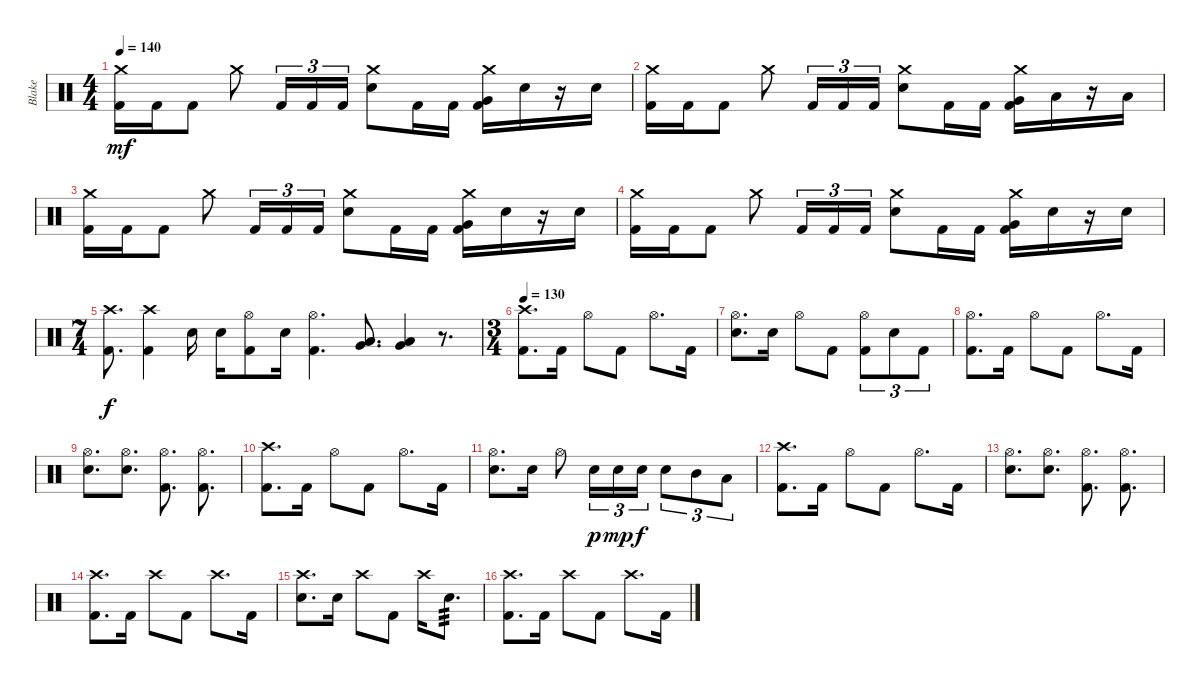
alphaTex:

\track ("Blake" "Blake") {instrument percussion}
\staff {score}
\articulation defaults
\ts (4 4)
\tempo 140
\clef neutral
\ks c
("Crash medium (hit)" "Kick (hit) 2").16{dy mf} "Kick (hit) 2".16 "Kick (hit) 2".8 "Crash medium (hit)".8 "Kick (hit) 2".16{tu (3 2)} "Kick (hit) 2".16{tu (3 2)} "Kick (hit) 2".16{tu (3 2)} ("Crash medium (hit)" "Snare (hit) 2").8 "Kick (hit) 2".16 "Kick (hit) 2".16 ("Crash medium (hit)" "Very Low Tom (hit)" "Kick (hit) 2").16 "Snare (hit) 2".16 r.16 "Snare (hit) 2".16 |
("Crash medium (hit)" "Kick (hit) 2").16 "Kick (hit) 2".16 "Kick (hit) 2".8 "Crash medium (hit)".8 "Kick (hit) 2".16{tu (3 2)} "Kick (hit) 2".16{tu (3 2)} "Kick (hit) 2".16{tu (3 2)} ("Crash medium (hit)" "Snare (hit) 2").8 "Kick (hit) 2".16 "Kick (hit) 2".16 ("Crash medium (hit)" "Very Low Tom (hit)" "Kick (hit) 2").16 "Low Tom (hit)".16 r.16 "Low Tom (hit)".16 |
("Crash medium (hit)" "Kick (hit) 2").16 "Kick (hit) 2".16 "Kick (hit) 2".8 "Crash medium (hit)".8 "Kick (hit) 2".16{tu (3 2)} "Kick (hit) 2".16{tu (3 2)} "Kick (hit) 2".16{tu (3 2)} ("Crash medium (hit)" "Snare (hit) 2").8 "Kick (hit) 2".16 "Kick (hit) 2".16 ("Crash medium (hit)" "Very Low Tom (hit)" "Kick (hit) 2").16 "Snare (hit) 2".16 r.16 "Snare (hit) 2".16 |
("Crash medium (hit)" "Kick (hit) 2").16 "Kick (hit) 2".16 "Kick (hit) 2".8 "Crash medium (hit)".8 "Kick (hit) 2".16{tu (3 2)} "Kick (hit) 2".16{tu (3 2)} "Kick (hit) 2".16{tu (3 2)} ("Crash medium (hit)" "Snare (hit) 2").8 "Kick (hit) 2".16 "Kick (hit) 2".16 ("Crash medium (hit)" "Very Low Tom (hit)" "Kick (hit) 2").16 "Snare (hit) 2".16 r.16 "Snare (hit) 2".16 |
\ts (7 4)
("Crash high (hit)" "Kick (hit) 2").8{d dy f} ("Crash high (hit)" "Kick (hit) 2").4 "Snare (hit) 2".16 "Snare (hit) 2".16 ("Hi-Hat (open)" "Kick (hit) 2").8 "Snare (hit) 2".16 ("Hi-Hat (open)" "Kick (hit) 2").4{d} ("Low Tom (hit)" "Very Low Tom (hit)").8{d} ("Low Tom (hit)" "Very Low Tom (hit)").4 r.8{d} |
\ts (3 4)
\tempo 130
("Crash high (hit)" "Kick (hit) 2").8{d} "Kick (hit) 2".16 "Hi-Hat (open)".8 "Kick (hit) 2".8 "Hi-Hat (open)".8{d} "Kick (hit) 2".16 |
("Hi-Hat (open)" "Snare (hit) 2").8{d} "Snare (hit) 2".16 "Hi-Hat (open)".8 "Kick (hit) 2".8 ("Hi-Hat (open)" "Kick (hit) 2").8{tu (3 2)} "Snare (hit) 2".8{tu (3 2)} "Kick (hit) 2".8{tu (3 2)} |
("Hi-Hat (open)" "Kick (hit) 2").8{d} "Kick (hit) 2".16 "Hi-Hat (open)".8 "Kick (hit) 2".8 "Hi-Hat (open)".8{d} "Kick (hit) 2".16 |
("Hi-Hat (open)" "Snare (hit) 2").8{d} ("Hi-Hat (open)" "Snare (hit) 2").8{d} ("Hi-Hat (open)" "Kick (hit) 2").8{d} ("Hi-Hat (open)" "Kick (hit) 2").8{d} |
("Crash high (hit)" "Kick (hit) 2").8{d} "Kick (hit) 2".16 "Hi-Hat (open)".8 "Kick (hit) 2".8 "Hi-Hat (open)".8{d} "Kick (hit) 2".16 |
("Hi-Hat (open)" "Snare (hit) 2").8{d} "Snare (hit) 2".16 "Hi-Hat (open)".8 "Snare (hit) 2".16{tu (3 2) dy p} "Snare (hit) 2".16{tu (3 2) dy mp} "Snare (hit) 2".16{tu (3 2) dy f} "Snare (hit) 2".8{tu (3 2)} "Mid Tom (hit)".8{tu (3 2)} "Low Tom (hit)".8{tu (3 2)} |
("Crash high (hit)" "Kick (hit) 2").8{d} "Kick (hit) 2".16 "Hi-Hat (open)".8 "Kick (hit) 2".8 "Hi-Hat (open)".8{d} "Kick (hit) 2".16 |
("Hi-Hat (open)" "Snare (hit) 2").8{d} ("Hi-Hat (open)" "Snare (hit) 2").8{d} ("Hi-Hat (open)" "Kick (hit) 2").8{d} ("Hi-Hat (open)" "Kick (hit) 2").8{d} |
("Crash high (hit)" "Kick (hit) 2").8{d} "Kick (hit) 2".16 "Crash high (hit)".8 "Kick (hit) 2".8 "Crash high (hit)".8{d} "Kick (hit) 2".16 |
("Crash high (hit)" "Snare (hit) 2").8{d} "Snare (hit) 2".16 "Crash high (hit)".8 "Kick (hit) 2".8 "Crash high (hit)".16 "Snare (hit) 2".8{d tp 3} |
("Crash high (hit)" "Kick (hit) 2").8{d} "Kick (hit) 2".16 "Crash high (hit)".8 "Kick (hit) 2".8 "Crash high (hit)".8{d} "Kick (hit) 2".16
